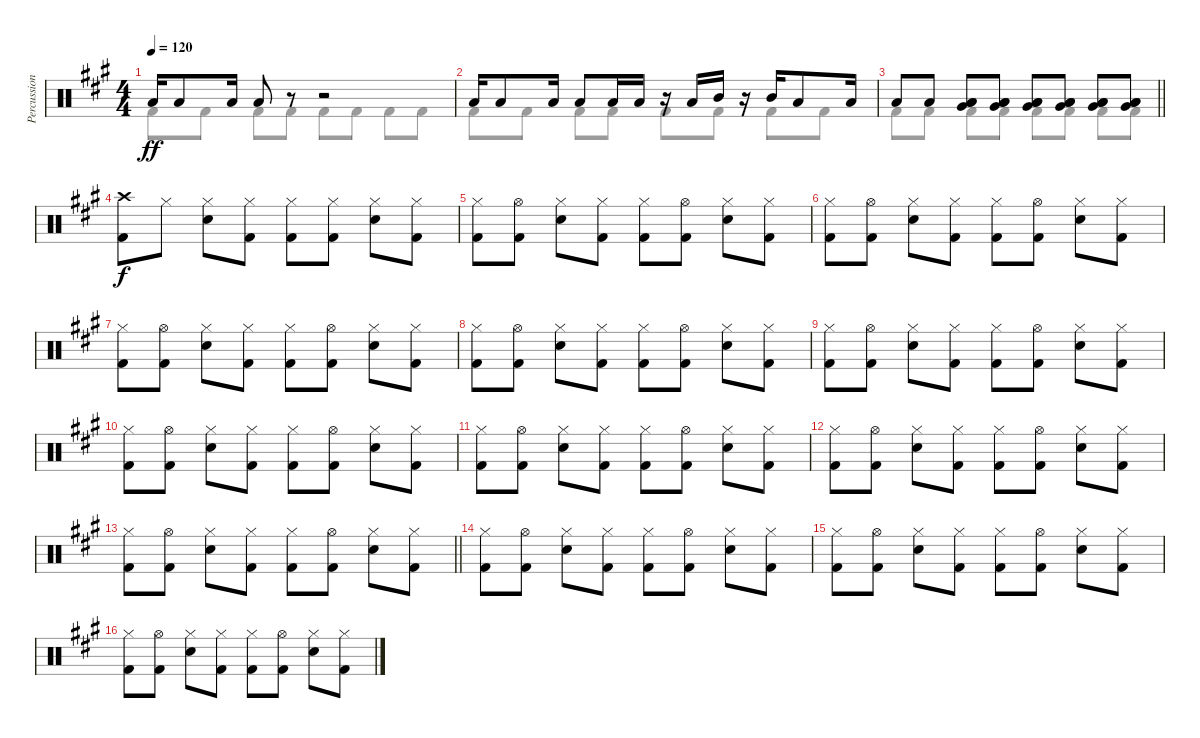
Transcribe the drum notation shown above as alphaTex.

\track ("Percussion" "Percussion") {instrument percussion}
\staff {score}
\articulation defaults
\voice
\ts (4 4)
\tempo 120
\clef neutral
\ks a "Low Tom (hit)".16{dy ff} "Low Tom (hit)".8 "Low Tom (hit)".16 "Low Floor Tom (hit)".8
r.8 r.2 |
"Low Tom (hit)".16 "Low Tom (hit)".8 "Low Tom (hit)".16 "Low Floor Tom (hit)".8 "Low Floor Tom (hit)".16 "Low Floor Tom (hit)".16 r.16 "Low Floor Tom (hit)".16 "Mid Tom (hit)".16 r.16 "Mid Tom (hit)".16 "Low Floor Tom (hit)".8 "Low Floor Tom (hit)".16 |
\barLineRight lightlight "Low Floor Tom (hit)".8 "Low Floor Tom (hit)".8
("Low Tom (hit)" "Very Low Tom (hit)" "Low Floor Tom (hit)").8 ("Low Tom (hit)" "Very Low Tom (hit)" "Low Floor Tom (hit)").8 ("Low Tom (hit)" "Very Low Tom (hit)" "Low Floor Tom (hit)").8 ("Low Tom (hit)" "Very Low Tom (hit)" "Low Floor Tom (hit)").8 ("Low Tom (hit)" "Very Low Tom (hit)" "Low Floor Tom (hit)").8 ("Low Tom (hit)" "Very Low Tom (hit)" "Low Floor Tom (hit)").8 |
("Crash high (hit)" "Kick (hit) 2").8{dy f} "Hi-Hat (closed)".8 ("Hi-Hat (closed)" "Snare (hit) 2").8 ("Hi-Hat (closed)" "Kick (hit) 2").8 ("Hi-Hat (closed)" "Kick (hit) 2").8 ("Hi-Hat (closed)" "Kick (hit) 2").8 ("Hi-Hat (closed)" "Snare (hit) 2").8 ("Hi-Hat (closed)" "Kick (hit) 2").8 |
("Hi-Hat (closed)" "Kick (hit) 2").8 ("Hi-Hat (open)" "Kick (hit) 2").8 ("Hi-Hat (closed)" "Snare (hit) 2").8 ("Hi-Hat (closed)" "Kick (hit) 2").8 ("Hi-Hat (closed)" "Kick (hit) 2").8 ("Hi-Hat (open)" "Kick (hit) 2").8 ("Hi-Hat (closed)" "Snare (hit) 2").8 ("Hi-Hat (closed)" "Kick (hit) 2").8 |
("Hi-Hat (closed)" "Kick (hit) 2").8 ("Hi-Hat (open)" "Kick (hit) 2").8 ("Hi-Hat (closed)" "Snare (hit) 2").8 ("Hi-Hat (closed)" "Kick (hit) 2").8 ("Hi-Hat (closed)" "Kick (hit) 2").8 ("Hi-Hat (open)" "Kick (hit) 2").8 ("Hi-Hat (closed)" "Snare (hit) 2").8 ("Hi-Hat (closed)" "Kick (hit) 2").8 |
("Hi-Hat (closed)" "Kick (hit) 2").8 ("Hi-Hat (open)" "Kick (hit) 2").8 ("Hi-Hat (closed)" "Snare (hit) 2").8 ("Hi-Hat (closed)" "Kick (hit) 2").8 ("Hi-Hat (closed)" "Kick (hit) 2").8 ("Hi-Hat (open)" "Kick (hit) 2").8 ("Hi-Hat (closed)" "Snare (hit) 2").8 ("Hi-Hat (closed)" "Kick (hit) 2").8 |
("Hi-Hat (closed)" "Kick (hit) 2").8 ("Hi-Hat (open)" "Kick (hit) 2").8 ("Hi-Hat (closed)" "Snare (hit) 2").8 ("Hi-Hat (closed)" "Kick (hit) 2").8 ("Hi-Hat (closed)" "Kick (hit) 2").8 ("Hi-Hat (open)" "Kick (hit) 2").8 ("Hi-Hat (closed)" "Snare (hit) 2").8 ("Hi-Hat (closed)" "Kick (hit) 2").8 |
("Hi-Hat (closed)" "Kick (hit) 2").8 ("Hi-Hat (open)" "Kick (hit) 2").8 ("Hi-Hat (closed)" "Snare (hit) 2").8 ("Hi-Hat (closed)" "Kick (hit) 2").8 ("Hi-Hat (closed)" "Kick (hit) 2").8 ("Hi-Hat (open)" "Kick (hit) 2").8 ("Hi-Hat (closed)" "Snare (hit) 2").8 ("Hi-Hat (closed)" "Kick (hit) 2").8 |
("Hi-Hat (closed)" "Kick (hit) 2").8 ("Hi-Hat (open)" "Kick (hit) 2").8 ("Hi-Hat (closed)" "Snare (hit) 2").8 ("Hi-Hat (closed)" "Kick (hit) 2").8 ("Hi-Hat (closed)" "Kick (hit) 2").8 ("Hi-Hat (open)" "Kick (hit) 2").8 ("Hi-Hat (closed)" "Snare (hit) 2").8 ("Hi-Hat (closed)" "Kick (hit) 2").8 |
("Hi-Hat (closed)" "Kick (hit) 2").8 ("Hi-Hat (open)" "Kick (hit) 2").8 ("Hi-Hat (closed)" "Snare (hit) 2").8 ("Hi-Hat (closed)" "Kick (hit) 2").8 ("Hi-Hat (closed)" "Kick (hit) 2").8 ("Hi-Hat (open)" "Kick (hit) 2").8 ("Hi-Hat (closed)" "Snare (hit) 2").8 ("Hi-Hat (closed)" "Kick (hit) 2").8 |
("Hi-Hat (closed)" "Kick (hit) 2").8 ("Hi-Hat (open)" "Kick (hit) 2").8 ("Hi-Hat (closed)" "Snare (hit) 2").8 ("Hi-Hat (closed)" "Kick (hit) 2").8 ("Hi-Hat (closed)" "Kick (hit) 2").8 ("Hi-Hat (open)" "Kick (hit) 2").8 ("Hi-Hat (closed)" "Snare (hit) 2").8 ("Hi-Hat (closed)" "Kick (hit) 2").8 |
\barLineRight lightlight
("Hi-Hat (closed)" "Kick (hit) 2").8 ("Hi-Hat (open)" "Kick (hit) 2").8 ("Hi-Hat (closed)" "Snare (hit) 2").8 ("Hi-Hat (closed)" "Kick (hit) 2").8 ("Hi-Hat (closed)" "Kick (hit) 2").8 ("Hi-Hat (open)" "Kick (hit) 2").8 ("Hi-Hat (closed)" "Snare (hit) 2").8 ("Hi-Hat (closed)" "Kick (hit) 2").8 |
("Hi-Hat (closed)" "Kick (hit) 2").8 ("Hi-Hat (open)" "Kick (hit) 2").8 ("Hi-Hat (closed)" "Snare (hit) 2").8 ("Hi-Hat (closed)" "Kick (hit) 2").8 ("Hi-Hat (closed)" "Kick (hit) 2").8 ("Hi-Hat (open)" "Kick (hit) 2").8 ("Hi-Hat (closed)" "Snare (hit) 2").8 ("Hi-Hat (closed)" "Kick (hit) 2").8 |
("Hi-Hat (closed)" "Kick (hit) 2").8 ("Hi-Hat (open)" "Kick (hit) 2").8 ("Hi-Hat (closed)" "Snare (hit) 2").8 ("Hi-Hat (closed)" "Kick (hit) 2").8 ("Hi-Hat (closed)" "Kick (hit) 2").8 ("Hi-Hat (open)" "Kick (hit) 2").8 ("Hi-Hat (closed)" "Snare (hit) 2").8 ("Hi-Hat (closed)" "Kick (hit) 2").8 |
("Hi-Hat (closed)" "Kick (hit) 2").8 ("Hi-Hat (open)" "Kick (hit) 2").8 ("Hi-Hat (closed)" "Snare (hit) 2").8 ("Hi-Hat (closed)" "Kick (hit) 2").8 ("Hi-Hat (closed)" "Kick (hit) 2").8 ("Hi-Hat (open)" "Kick (hit) 2").8 ("Hi-Hat (closed)" "Snare (hit) 2").8 ("Hi-Hat (closed)" "Kick (hit) 2").8
\voice
\clef neutral
\ottava regular
\simile none
\ks a "Kick (hit) 2".8{dy ff} "Kick (hit) 2".8 "Kick (hit) 2".8 "Kick (hit) 2".8 "Kick (hit) 2".8 "Kick (hit) 2".8 "Kick (hit) 2".8 "Kick (hit) 2".8
|
"Kick (hit) 2".8 "Kick (hit) 2".8 "Kick (hit) 2".8 "Kick (hit) 2".8 "Kick (hit) 2".8 "Kick (hit) 2".8 "Kick (hit) 2".8 "Kick (hit) 2".8 |
\barLineRight lightlight "Kick (hit) 2".8 "Kick (hit) 2".8 "Kick (hit) 2".8 "Kick (hit) 2".8 "Kick (hit) 2".8 "Kick (hit) 2".8 "Kick (hit) 2".8 "Kick (hit) 2".8
|
|
|
|
|
|
|
|
|
|
\barLineRight lightlight
|
|
|
